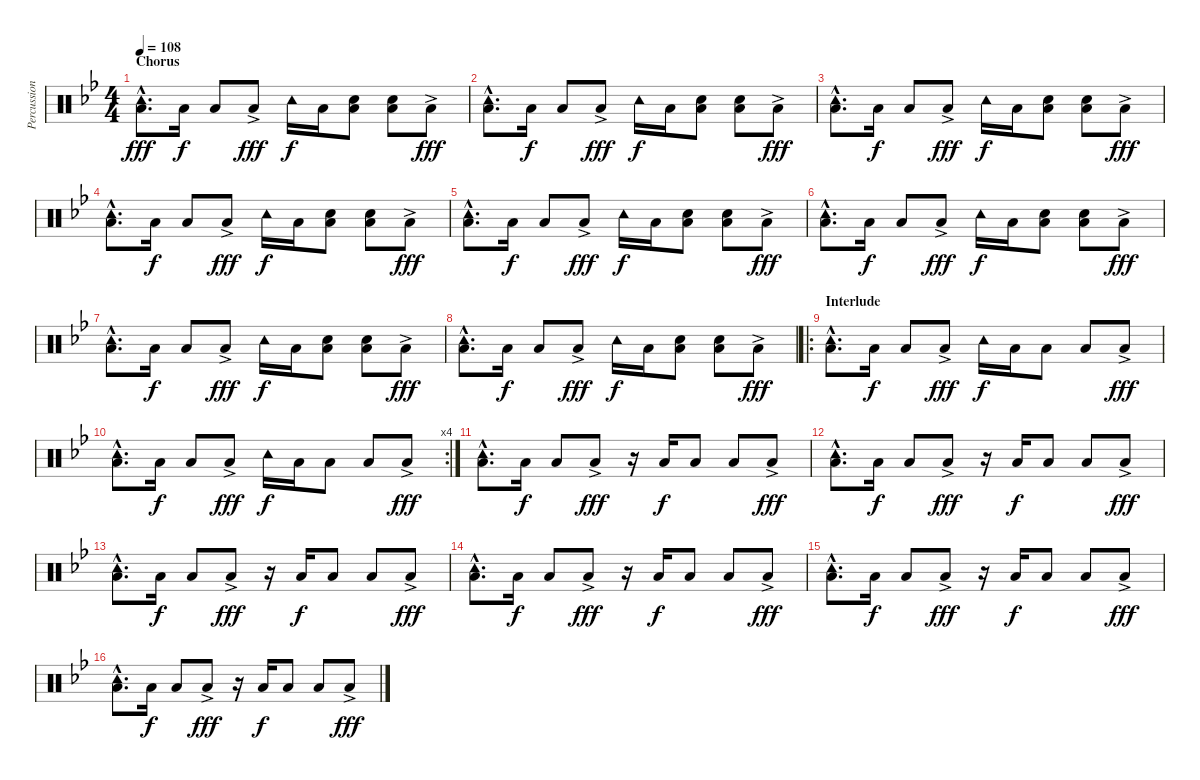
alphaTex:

\track ("Percussion" "Percussion") {instrument percussion}
\staff {score}
\articulation defaults
\ts (4 4)
\section ("" "Chorus")
\tempo 108
\clef neutral
\ks bb
("Tambourine (hit)"{hac} "Low Tom (hit)"{hac}).8{d dy fff} "Low Tom (hit)".16{dy f} "Low Tom (hit)".8 "Low Tom (hit)"{ac}.8{dy fff} "Tambourine (hit)".16{dy f} "Low Tom (hit)".16 ("Low Tom (hit)" "Hand Clap (hit)").8 ("Low Tom (hit)" "Hand Clap (hit)").8 "Low Tom (hit)"{ac}.8{dy fff} |
("Tambourine (hit)"{hac} "Low Tom (hit)"{hac}).8{d} "Low Tom (hit)".16{dy f} "Low Tom (hit)".8 "Low Tom (hit)"{ac}.8{dy fff} "Tambourine (hit)".16{dy f} "Low Tom (hit)".16 ("Low Tom (hit)" "Hand Clap (hit)").8 ("Low Tom (hit)" "Hand Clap (hit)").8 "Low Tom (hit)"{ac}.8{dy fff} |
("Tambourine (hit)"{hac} "Low Tom (hit)"{hac}).8{d} "Low Tom (hit)".16{dy f} "Low Tom (hit)".8 "Low Tom (hit)"{ac}.8{dy fff} "Tambourine (hit)".16{dy f} "Low Tom (hit)".16 ("Low Tom (hit)" "Hand Clap (hit)").8 ("Low Tom (hit)" "Hand Clap (hit)").8 "Low Tom (hit)"{ac}.8{dy fff} |
("Tambourine (hit)"{hac} "Low Tom (hit)"{hac}).8{d} "Low Tom (hit)".16{dy f} "Low Tom (hit)".8 "Low Tom (hit)"{ac}.8{dy fff} "Tambourine (hit)".16{dy f} "Low Tom (hit)".16 ("Low Tom (hit)" "Hand Clap (hit)").8 ("Low Tom (hit)" "Hand Clap (hit)").8 "Low Tom (hit)"{ac}.8{dy fff} |
("Tambourine (hit)"{hac} "Low Tom (hit)"{hac}).8{d} "Low Tom (hit)".16{dy f} "Low Tom (hit)".8 "Low Tom (hit)"{ac}.8{dy fff} "Tambourine (hit)".16{dy f} "Low Tom (hit)".16 ("Low Tom (hit)" "Hand Clap (hit)").8 ("Low Tom (hit)" "Hand Clap (hit)").8 "Low Tom (hit)"{ac}.8{dy fff} |
("Tambourine (hit)"{hac} "Low Tom (hit)"{hac}).8{d} "Low Tom (hit)".16{dy f} "Low Tom (hit)".8 "Low Tom (hit)"{ac}.8{dy fff} "Tambourine (hit)".16{dy f} "Low Tom (hit)".16 ("Low Tom (hit)" "Hand Clap (hit)").8 ("Low Tom (hit)" "Hand Clap (hit)").8 "Low Tom (hit)"{ac}.8{dy fff} |
("Tambourine (hit)"{hac} "Low Tom (hit)"{hac}).8{d} "Low Tom (hit)".16{dy f} "Low Tom (hit)".8 "Low Tom (hit)"{ac}.8{dy fff} "Tambourine (hit)".16{dy f} "Low Tom (hit)".16 ("Low Tom (hit)" "Hand Clap (hit)").8 ("Low Tom (hit)" "Hand Clap (hit)").8 "Low Tom (hit)"{ac}.8{dy fff} |
("Tambourine (hit)"{hac} "Low Tom (hit)"{hac}).8{d} "Low Tom (hit)".16{dy f} "Low Tom (hit)".8 "Low Tom (hit)"{ac}.8{dy fff} "Tambourine (hit)".16{dy f} "Low Tom (hit)".16 ("Low Tom (hit)" "Hand Clap (hit)").8 ("Low Tom (hit)" "Hand Clap (hit)").8 "Low Tom (hit)"{ac}.8{dy fff} |
\ro
\section ("" "Interlude")
("Tambourine (hit)"{hac} "Low Tom (hit)"{hac}).8{d} "Low Tom (hit)".16{dy f} "Low Tom (hit)".8 "Low Tom (hit)"{ac}.8{dy fff} "Tambourine (hit)".16{dy f} "Low Tom (hit)".16 "Low Tom (hit)".8 "Low Tom (hit)".8 "Low Tom (hit)"{ac}.8{dy fff} |
\rc 4
("Tambourine (hit)"{hac} "Low Tom (hit)"{hac}).8{d} "Low Tom (hit)".16{dy f} "Low Tom (hit)".8 "Low Tom (hit)"{ac}.8{dy fff} "Tambourine (hit)".16{dy f} "Low Tom (hit)".16 "Low Tom (hit)".8 "Low Tom (hit)".8 "Low Tom (hit)"{ac}.8{dy fff} |
("Tambourine (hit)"{hac} "Low Tom (hit)"{hac}).8{d} "Low Tom (hit)".16{dy f} "Low Tom (hit)".8 "Low Tom (hit)"{ac}.8{dy fff} r.16 "Low Tom (hit)".16{dy f} "Low Tom (hit)".8 "Low Tom (hit)".8 "Low Tom (hit)"{ac}.8{dy fff} |
("Tambourine (hit)"{hac} "Low Tom (hit)"{hac}).8{d} "Low Tom (hit)".16{dy f} "Low Tom (hit)".8 "Low Tom (hit)"{ac}.8{dy fff} r.16 "Low Tom (hit)".16{dy f} "Low Tom (hit)".8 "Low Tom (hit)".8 "Low Tom (hit)"{ac}.8{dy fff} |
("Tambourine (hit)"{hac} "Low Tom (hit)"{hac}).8{d} "Low Tom (hit)".16{dy f} "Low Tom (hit)".8 "Low Tom (hit)"{ac}.8{dy fff} r.16 "Low Tom (hit)".16{dy f} "Low Tom (hit)".8 "Low Tom (hit)".8 "Low Tom (hit)"{ac}.8{dy fff} |
("Tambourine (hit)"{hac} "Low Tom (hit)"{hac}).8{d} "Low Tom (hit)".16{dy f} "Low Tom (hit)".8 "Low Tom (hit)"{ac}.8{dy fff} r.16 "Low Tom (hit)".16{dy f} "Low Tom (hit)".8 "Low Tom (hit)".8 "Low Tom (hit)"{ac}.8{dy fff} |
("Tambourine (hit)"{hac} "Low Tom (hit)"{hac}).8{d} "Low Tom (hit)".16{dy f} "Low Tom (hit)".8 "Low Tom (hit)"{ac}.8{dy fff} r.16 "Low Tom (hit)".16{dy f} "Low Tom (hit)".8 "Low Tom (hit)".8 "Low Tom (hit)"{ac}.8{dy fff} |
("Tambourine (hit)"{hac} "Low Tom (hit)"{hac}).8{d} "Low Tom (hit)".16{dy f} "Low Tom (hit)".8 "Low Tom (hit)"{ac}.8{dy fff} r.16 "Low Tom (hit)".16{dy f} "Low Tom (hit)".8 "Low Tom (hit)".8 "Low Tom (hit)"{ac}.8{dy fff}
